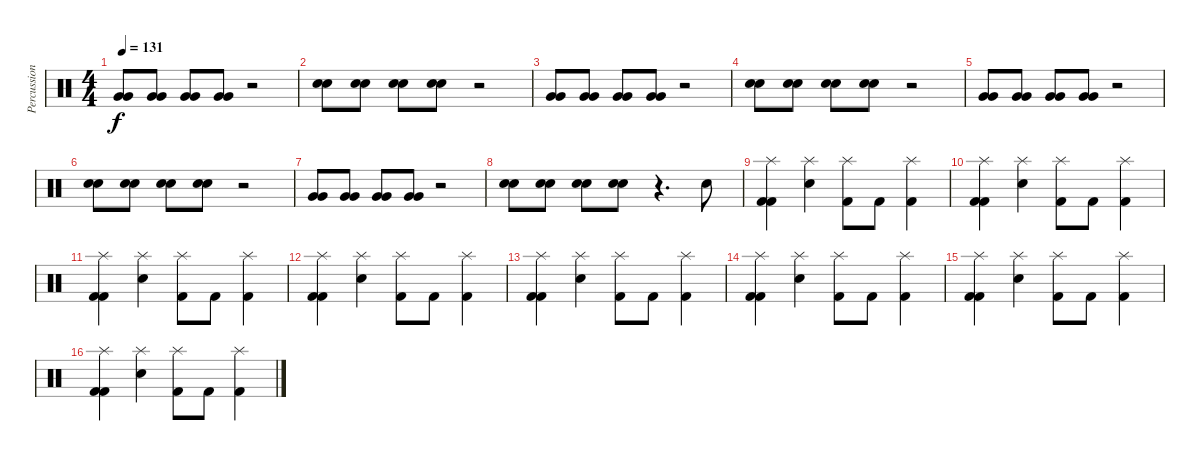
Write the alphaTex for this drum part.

\track ("Percussion" "Percussion") {instrument percussion}
\staff {score}
\articulation defaults
\ts (4 4)
\tempo 131
\clef neutral
\ks c
("Very Low Tom (hit)" "Very Low Tom (hit)").8{dy f} ("Very Low Tom (hit)" "Very Low Tom (hit)").8 ("Very Low Tom (hit)" "Very Low Tom (hit)").8 ("Very Low Tom (hit)" "Very Low Tom (hit)").8 r.2 |
("Snare (hit) 2" "Snare (hit) 2").8 ("Snare (hit) 2" "Snare (hit) 2").8 ("Snare (hit) 2" "Snare (hit) 2").8 ("Snare (hit) 2" "Snare (hit) 2").8 r.2 |
("Very Low Tom (hit)" "Very Low Tom (hit)").8 ("Very Low Tom (hit)" "Very Low Tom (hit)").8 ("Very Low Tom (hit)" "Very Low Tom (hit)").8 ("Very Low Tom (hit)" "Very Low Tom (hit)").8 r.2 |
("Snare (hit) 2" "Snare (hit) 2").8 ("Snare (hit) 2" "Snare (hit) 2").8 ("Snare (hit) 2" "Snare (hit) 2").8 ("Snare (hit) 2" "Snare (hit) 2").8 r.2 |
("Very Low Tom (hit)" "Very Low Tom (hit)").8 ("Very Low Tom (hit)" "Very Low Tom (hit)").8 ("Very Low Tom (hit)" "Very Low Tom (hit)").8 ("Very Low Tom (hit)" "Very Low Tom (hit)").8 r.2 |
("Snare (hit) 2" "Snare (hit) 2").8 ("Snare (hit) 2" "Snare (hit) 2").8 ("Snare (hit) 2" "Snare (hit) 2").8 ("Snare (hit) 2" "Snare (hit) 2").8 r.2 |
("Very Low Tom (hit)" "Very Low Tom (hit)").8 ("Very Low Tom (hit)" "Very Low Tom (hit)").8 ("Very Low Tom (hit)" "Very Low Tom (hit)").8 ("Very Low Tom (hit)" "Very Low Tom (hit)").8 r.2 |
("Snare (hit) 2" "Snare (hit) 2").8 ("Snare (hit) 2" "Snare (hit) 2").8 ("Snare (hit) 2" "Snare (hit) 2").8 ("Snare (hit) 2" "Snare (hit) 2").8 r.4{d} "Snare (hit) 2".8 |
("Splash (hit)" "Kick (hit) 2" "Kick (hit) 2").4 ("Splash (hit)" "Snare (hit) 2").4 ("Splash (hit)" "Kick (hit) 2").8 "Kick (hit) 2".8 ("Splash (hit)" "Kick (hit) 2").4 |
("Splash (hit)" "Kick (hit) 2" "Kick (hit) 2").4 ("Splash (hit)" "Snare (hit) 2").4 ("Splash (hit)" "Kick (hit) 2").8 "Kick (hit) 2".8 ("Splash (hit)" "Kick (hit) 2").4 |
("Splash (hit)" "Kick (hit) 2" "Kick (hit) 2").4 ("Splash (hit)" "Snare (hit) 2").4 ("Splash (hit)" "Kick (hit) 2").8 "Kick (hit) 2".8 ("Splash (hit)" "Kick (hit) 2").4 |
("Splash (hit)" "Kick (hit) 2" "Kick (hit) 2").4 ("Splash (hit)" "Snare (hit) 2").4 ("Splash (hit)" "Kick (hit) 2").8 "Kick (hit) 2".8 ("Splash (hit)" "Kick (hit) 2").4 |
("Splash (hit)" "Kick (hit) 2" "Kick (hit) 2").4 ("Splash (hit)" "Snare (hit) 2").4 ("Splash (hit)" "Kick (hit) 2").8 "Kick (hit) 2".8 ("Splash (hit)" "Kick (hit) 2").4 |
("Splash (hit)" "Kick (hit) 2" "Kick (hit) 2").4 ("Splash (hit)" "Snare (hit) 2").4 ("Splash (hit)" "Kick (hit) 2").8 "Kick (hit) 2".8 ("Splash (hit)" "Kick (hit) 2").4 |
("Splash (hit)" "Kick (hit) 2" "Kick (hit) 2").4 ("Splash (hit)" "Snare (hit) 2").4 ("Splash (hit)" "Kick (hit) 2").8 "Kick (hit) 2".8 ("Splash (hit)" "Kick (hit) 2").4 |
("Splash (hit)" "Kick (hit) 2" "Kick (hit) 2").4 ("Splash (hit)" "Snare (hit) 2").4 ("Splash (hit)" "Kick (hit) 2").8 "Kick (hit) 2".8 ("Splash (hit)" "Kick (hit) 2").4
